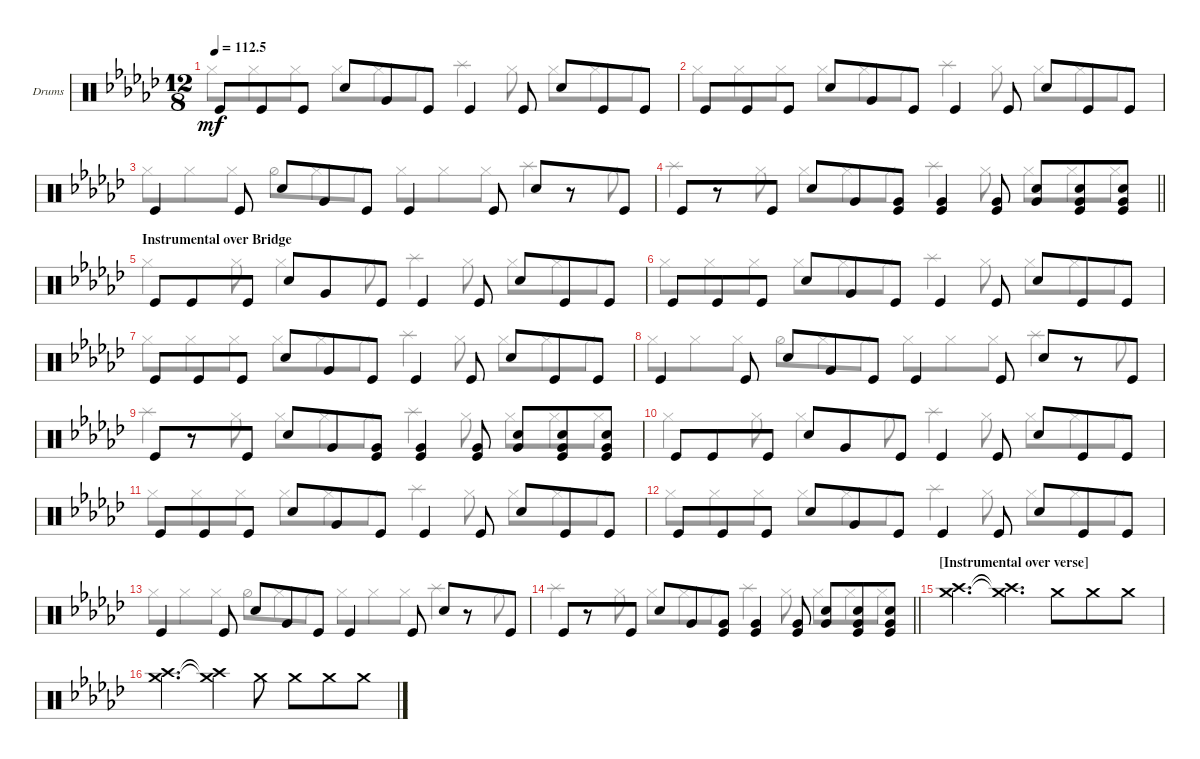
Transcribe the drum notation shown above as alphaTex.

\bracketExtendMode groupsimilarinstruments
\firstSystemTrackNameOrientation horizontal
\otherSystemsTrackNameOrientation horizontal
\track ("Drumkit" "Drums") {instrument percussion}
\staff {score}
\articulation defaults
\voice
\ts (12 8)
\tempo
112.5
\accidentals auto
\clef neutral
\ottava regular
\simile none
\ks ebminor "Kick (hit)".8{dy mf} "Kick (hit)".8 "Kick (hit)".8 "Snare (hit) 2".8 "Very Low Tom (hit)".8 "Kick (hit)".8 "Kick (hit)".4 "Kick (hit)".8 "Snare (hit) 2".8 "Kick (hit)".8 "Kick (hit)".8
|
"Kick (hit)".8 "Kick (hit)".8 "Kick (hit)".8 "Snare (hit) 2".8 "Very Low Tom (hit)".8 "Kick (hit)".8 "Kick (hit)".4 "Kick (hit)".8 "Snare (hit) 2".8 "Kick (hit)".8 "Kick (hit)".8 |
"Kick (hit)".4 "Kick (hit)".8 "Snare (hit) 2".8 "Very Low Tom (hit)".8 "Kick (hit)".8 "Kick (hit)".4 "Kick (hit)".8 "Snare (hit) 2".8 r.8 "Kick (hit)".8 |
\barLineRight lightlight "Kick (hit)".8
r.8 "Kick (hit)".8 "Snare (hit) 2".8 "Very Low Tom (hit)".8 ("Kick (hit)" "Very Low Tom (hit)").8 ("Kick (hit)" "Very Low Tom (hit)").4 ("Kick (hit)" "Very Low Tom (hit)").8 ("Snare (hit) 2" "Very Low Tom (hit)").8 ("Kick (hit)" "Very Low Tom (hit)" "Snare (hit) 2").8 ("Very Low Tom (hit)" "Kick (hit)" "Snare (hit) 2").8 |
\section ("" "Instrumental over Bridge")
"Kick (hit)".8 "Kick (hit)".8 "Kick (hit)".8 "Snare (hit) 2".8 "Very Low Tom (hit)".8 "Kick (hit)".8 "Kick (hit)".4 "Kick (hit)".8 "Snare (hit) 2".8 "Kick (hit)".8 "Kick (hit)".8 |
"Kick (hit)".8 "Kick (hit)".8 "Kick (hit)".8 "Snare (hit) 2".8 "Very Low Tom (hit)".8 "Kick (hit)".8 "Kick (hit)".4 "Kick (hit)".8 "Snare (hit) 2".8 "Kick (hit)".8 "Kick (hit)".8 |
"Kick (hit)".8 "Kick (hit)".8 "Kick (hit)".8 "Snare (hit) 2".8 "Very Low Tom (hit)".8 "Kick (hit)".8 "Kick (hit)".4 "Kick (hit)".8 "Snare (hit) 2".8 "Kick (hit)".8 "Kick (hit)".8 |
"Kick (hit)".4 "Kick (hit)".8 "Snare (hit) 2".8 "Very Low Tom (hit)".8 "Kick (hit)".8 "Kick (hit)".4 "Kick (hit)".8 "Snare (hit) 2".8 r.8 "Kick (hit)".8 |
"Kick (hit)".8 r.8 "Kick (hit)".8 "Snare (hit) 2".8 "Very Low Tom (hit)".8 ("Kick (hit)" "Very Low Tom (hit)").8 ("Kick (hit)" "Very Low Tom (hit)").4 ("Kick (hit)" "Very Low Tom (hit)").8 ("Snare (hit) 2" "Very Low Tom (hit)").8 ("Kick (hit)" "Very Low Tom (hit)" "Snare (hit) 2").8 ("Very Low Tom (hit)" "Kick (hit)" "Snare (hit) 2").8 |
"Kick (hit)".8 "Kick (hit)".8 "Kick (hit)".8 "Snare (hit) 2".8 "Very Low Tom (hit)".8 "Kick (hit)".8 "Kick (hit)".4 "Kick (hit)".8 "Snare (hit) 2".8 "Kick (hit)".8 "Kick (hit)".8 |
"Kick (hit)".8 "Kick (hit)".8 "Kick (hit)".8 "Snare (hit) 2".8 "Very Low Tom (hit)".8 "Kick (hit)".8 "Kick (hit)".4 "Kick (hit)".8 "Snare (hit) 2".8 "Kick (hit)".8 "Kick (hit)".8 |
"Kick (hit)".8 "Kick (hit)".8 "Kick (hit)".8 "Snare (hit) 2".8 "Very Low Tom (hit)".8 "Kick (hit)".8 "Kick (hit)".4 "Kick (hit)".8 "Snare (hit) 2".8 "Kick (hit)".8 "Kick (hit)".8 |
"Kick (hit)".4 "Kick (hit)".8 "Snare (hit) 2".8 "Very Low Tom (hit)".8 "Kick (hit)".8 "Kick (hit)".4 "Kick (hit)".8 "Snare (hit) 2".8 r.8 "Kick (hit)".8 |
\barLineRight lightlight "Kick (hit)".8
r.8 "Kick (hit)".8 "Snare (hit) 2".8 "Very Low Tom (hit)".8 ("Kick (hit)" "Very Low Tom (hit)").8 ("Kick (hit)" "Very Low Tom (hit)").4 ("Kick (hit)" "Very Low Tom (hit)").8 ("Snare (hit) 2" "Very Low Tom (hit)").8 ("Kick (hit)" "Very Low Tom (hit)" "Snare (hit) 2").8 ("Very Low Tom (hit)" "Kick (hit)" "Snare (hit) 2").8 |
\section ("" "[Instrumental over verse] ")
("Crash medium (hit)" "Crash high (hit)").2{d} ("Crash medium (hit)"{t} "Crash high (hit)"{t}).4{d} "Crash medium (hit)".8 "Crash medium (hit)".8 "Crash medium (hit)".8 |
("Crash medium (hit)" "Crash high (hit)").2{d} ("Crash medium (hit)"{t} "Crash high (hit)"{t}).4 "Crash medium (hit)".8 "Crash medium (hit)".8 "Crash medium (hit)".8 "Crash medium (hit)".8
\voice
\clef neutral
\ottava regular
\simile none
\ks ebminor "Hi-Hat (closed)".8{dy mf} "Hi-Hat (closed)".8 "Hi-Hat (closed)".8 "Hi-Hat (closed)".8 "Hi-Hat (closed)".8 "Hi-Hat (closed)".8 "Splash (hit)".4 "Hi-Hat (closed)".8 "Hi-Hat (closed)".8 "Hi-Hat (closed)".8 "Hi-Hat (closed)".8
|
"Hi-Hat (closed)".8 "Hi-Hat (closed)".8 "Hi-Hat (closed)".8 "Hi-Hat (closed)".8 "Hi-Hat (closed)".8 "Hi-Hat (closed)".8 "Splash (hit)".4 "Hi-Hat (closed)".8 "Hi-Hat (closed)".8 "Hi-Hat (closed)".8 "Hi-Hat (closed)".8 |
"Hi-Hat (closed)".8 "Hi-Hat (closed)".8 "Hi-Hat (closed)".8 "Hi-Hat (half)".8 "Hi-Hat (closed)".8 "Hi-Hat (closed)".8 "Hi-Hat (closed)".8 "Hi-Hat (closed)".8 "Hi-Hat (closed)".8 "Splash (hit)".4 "Hi-Hat (closed)".8 |
\barLineRight lightlight "Splash (hit)".4 "Hi-Hat (closed)".8 "Hi-Hat (closed)".8 "Hi-Hat (closed)".8 "Hi-Hat (closed)".8 "Splash (hit)".4 "Hi-Hat (closed)".8 "Hi-Hat (closed)".8 "Hi-Hat (closed)".8 "Hi-Hat (closed)".8
|
"Hi-Hat (closed)".4 "Hi-Hat (closed)".8 "Hi-Hat (closed)".4 "Hi-Hat (closed)".8 "Splash (hit)".4 "Hi-Hat (closed)".8 "Hi-Hat (closed)".8 "Hi-Hat (closed)".8 "Hi-Hat (closed)".8 |
"Hi-Hat (closed)".8 "Hi-Hat (closed)".8 "Hi-Hat (closed)".8 "Hi-Hat (closed)".8 "Hi-Hat (closed)".8 "Hi-Hat (closed)".8 "Splash (hit)".4 "Hi-Hat (closed)".8 "Hi-Hat (closed)".8 "Hi-Hat (closed)".8 "Hi-Hat (closed)".8 |
"Hi-Hat (closed)".8 "Hi-Hat (closed)".8 "Hi-Hat (closed)".8 "Hi-Hat (closed)".8 "Hi-Hat (closed)".8 "Hi-Hat (closed)".8 "Splash (hit)".4 "Hi-Hat (closed)".8 "Hi-Hat (closed)".8 "Hi-Hat (closed)".8 "Hi-Hat (closed)".8 |
"Hi-Hat (closed)".8 "Hi-Hat (closed)".8 "Hi-Hat (closed)".8 "Hi-Hat (half)".8 "Hi-Hat (closed)".8 "Hi-Hat (closed)".8 "Hi-Hat (closed)".8 "Hi-Hat (closed)".8 "Hi-Hat (closed)".8 "Splash (hit)".4 "Hi-Hat (closed)".8 |
"Splash (hit)".4 "Hi-Hat (closed)".8 "Hi-Hat (closed)".8 "Hi-Hat (closed)".8 "Hi-Hat (closed)".8 "Splash (hit)".4 "Hi-Hat (closed)".8 "Hi-Hat (closed)".8 "Hi-Hat (closed)".8 "Hi-Hat (closed)".8 |
"Hi-Hat (closed)".4 "Hi-Hat (closed)".8 "Hi-Hat (closed)".4 "Hi-Hat (closed)".8 "Splash (hit)".4 "Hi-Hat (closed)".8 "Hi-Hat (closed)".8 "Hi-Hat (closed)".8 "Hi-Hat (closed)".8 |
"Hi-Hat (closed)".8 "Hi-Hat (closed)".8 "Hi-Hat (closed)".8 "Hi-Hat (closed)".8 "Hi-Hat (closed)".8 "Hi-Hat (closed)".8 "Splash (hit)".4 "Hi-Hat (closed)".8 "Hi-Hat (closed)".8 "Hi-Hat (closed)".8 "Hi-Hat (closed)".8 |
"Hi-Hat (closed)".8 "Hi-Hat (closed)".8 "Hi-Hat (closed)".8 "Hi-Hat (closed)".8 "Hi-Hat (closed)".8 "Hi-Hat (closed)".8 "Splash (hit)".4 "Hi-Hat (closed)".8 "Hi-Hat (closed)".8 "Hi-Hat (closed)".8 "Hi-Hat (closed)".8 |
"Hi-Hat (closed)".8 "Hi-Hat (closed)".8 "Hi-Hat (closed)".8 "Hi-Hat (half)".8 "Hi-Hat (closed)".8 "Hi-Hat (closed)".8 "Hi-Hat (closed)".8 "Hi-Hat (closed)".8 "Hi-Hat (closed)".8 "Splash (hit)".4 "Hi-Hat (closed)".8 |
\barLineRight lightlight "Splash (hit)".4 "Hi-Hat (closed)".8 "Hi-Hat (closed)".8 "Hi-Hat (closed)".8 "Hi-Hat (closed)".8 "Splash (hit)".4 "Hi-Hat (closed)".8 "Hi-Hat (closed)".8 "Hi-Hat (closed)".8 "Hi-Hat (closed)".8
|
|
